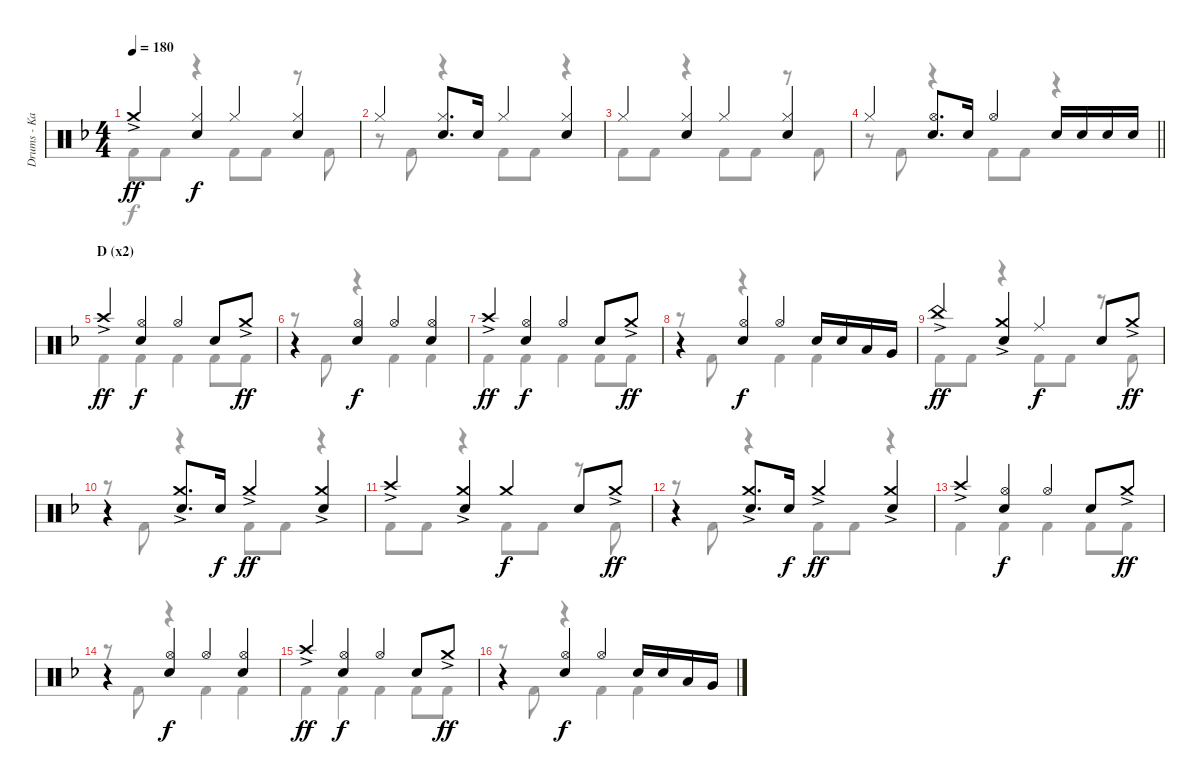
\track ("Drums - Kai" "Drums - Ka") {instrument percussion}
\staff {score}
\articulation defaults
\voice
\ts (4 4)
\tempo 180
\clef neutral
\ks f "Crash medium (hit)"{ac}.4{dy ff}
("Hi-Hat (closed)" "Snare (hit) 2").4{dy f} "Hi-Hat (closed)".4 ("Hi-Hat (closed)" "Snare (hit) 2").4 |
"Hi-Hat (closed)".4 ("Hi-Hat (closed)" "Snare (hit) 2").8{d} "Snare (hit) 2".16 "Hi-Hat (closed)".4 ("Hi-Hat (closed)" "Snare (hit) 2").4 |
"Hi-Hat (closed)".4 ("Hi-Hat (closed)" "Snare (hit) 2").4 "Hi-Hat (closed)".4 ("Hi-Hat (closed)" "Snare (hit) 2").4 |
\barLineRight lightlight "Hi-Hat (closed)".4
("Hi-Hat (open)" "Snare (hit) 2").8{d} "Snare (hit) 2".16 "Hi-Hat (open)".4 "Snare (hit) 2".16 "Snare (hit) 2".16 "Snare (hit) 2".16 "Snare (hit) 2".16 |
\section ("" "D (x2)")
"Crash high (hit)"{ac}.4{dy ff} ("Hi-Hat (open)" "Snare (hit) 2").4{dy f} "Hi-Hat (open)".4 "Snare (hit) 2".8 "Crash medium (hit)"{ac}.8{dy ff} |
r.4 ("Hi-Hat (open)" "Snare (hit) 2").4{dy f} "Hi-Hat (open)".4 ("Hi-Hat (open)" "Snare (hit) 2").4 |
"Crash high (hit)"{ac}.4{dy ff} ("Hi-Hat (open)" "Snare (hit) 2").4{dy f} "Hi-Hat (open)".4 "Snare (hit) 2".8 "Crash medium (hit)"{ac}.8{dy ff} |
r.4 ("Hi-Hat (open)" "Snare (hit) 2").4{dy f} "Hi-Hat (open)".4 "Snare (hit) 2".16 "Snare (hit) 2".16 "Low Tom (hit)".16 "Very Low Tom (hit)".16 |
"China (hit)"{ac}.4{dy ff} ("Crash medium (hit)"{ac} "Snare (hit) 2").4 "Ride (middle)".4{dy f} "Snare (hit) 2".8 "Crash medium (hit)"{ac}.8{dy ff} |
r.4 ("Crash medium (hit)"{ac} "Snare (hit) 2").8{d} "Snare (hit) 2".16{dy f} "Crash medium (hit)"{ac}.4{dy ff} ("Crash medium (hit)"{ac} "Snare (hit) 2").4 |
"Crash high (hit)"{ac}.4 ("Crash medium (hit)"{ac} "Snare (hit) 2").4 "Crash medium (hit)".4{dy f} "Snare (hit) 2".8 "Crash medium (hit)"{ac}.8{dy ff} |
r.4 ("Crash medium (hit)"{ac} "Snare (hit) 2").8{d} "Snare (hit) 2".16{dy f} "Crash medium (hit)"{ac}.4{dy ff} ("Crash medium (hit)"{ac} "Snare (hit) 2").4 |
"Crash high (hit)"{ac}.4 ("Hi-Hat (open)" "Snare (hit) 2").4{dy f} "Hi-Hat (open)".4 "Snare (hit) 2".8 "Crash medium (hit)"{ac}.8{dy ff} |
r.4 ("Hi-Hat (open)" "Snare (hit) 2").4{dy f} "Hi-Hat (open)".4 ("Hi-Hat (open)" "Snare (hit) 2").4 |
"Crash high (hit)"{ac}.4{dy ff} ("Hi-Hat (open)" "Snare (hit) 2").4{dy f} "Hi-Hat (open)".4 "Snare (hit) 2".8 "Crash medium (hit)"{ac}.8{dy ff} |
r.4 ("Hi-Hat (open)" "Snare (hit) 2").4{dy f} "Hi-Hat (open)".4 "Snare (hit) 2".16 "Snare (hit) 2".16 "Low Tom (hit)".16 "Very Low Tom (hit)".16
\voice
\clef neutral
\ottava regular
\simile none
\ks f "Kick (hit) 2".8{dy f} "Kick (hit) 2".8
r.4 "Kick (hit) 2".8 "Kick (hit) 2".8 r.8 "Kick (hit) 2".8 |
r.8 "Kick (hit) 2".8 r.4 "Kick (hit) 2".8 "Kick (hit) 2".8 r.4 |
"Kick (hit) 2".8 "Kick (hit) 2".8 r.4 "Kick (hit) 2".8 "Kick (hit) 2".8 r.8 "Kick (hit) 2".8 |
\barLineRight lightlight
r.8 "Kick (hit) 2".8 r.4 "Kick (hit) 2".8 "Kick (hit) 2".8 r.4 |
"Kick (hit) 2".4 "Kick (hit) 2".4 "Kick (hit) 2".4 "Kick (hit) 2".8 "Kick (hit) 2".8 |
r.8 "Kick (hit) 2".8 r.4 "Kick (hit) 2".4 "Kick (hit) 2".4 |
"Kick (hit) 2".4 "Kick (hit) 2".4 "Kick (hit) 2".4 "Kick (hit) 2".8 "Kick (hit) 2".8 |
r.8 "Kick (hit) 2".8 r.4 "Kick (hit) 2".4 "Kick (hit) 2".4 |
"Kick (hit) 2".8 "Kick (hit) 2".8 r.4 "Kick (hit) 2".8 "Kick (hit) 2".8 r.8 "Kick (hit) 2".8 |
r.8 "Kick (hit) 2".8 r.4 "Kick (hit) 2".8 "Kick (hit) 2".8 r.4 |
"Kick (hit) 2".8 "Kick (hit) 2".8 r.4 "Kick (hit) 2".8 "Kick (hit) 2".8 r.8 "Kick (hit) 2".8 |
r.8 "Kick (hit) 2".8 r.4 "Kick (hit) 2".8 "Kick (hit) 2".8 r.4 |
"Kick (hit) 2".4 "Kick (hit) 2".4 "Kick (hit) 2".4 "Kick (hit) 2".8 "Kick (hit) 2".8 |
r.8 "Kick (hit) 2".8 r.4 "Kick (hit) 2".4 "Kick (hit) 2".4 |
"Kick (hit) 2".4 "Kick (hit) 2".4 "Kick (hit) 2".4 "Kick (hit) 2".8 "Kick (hit) 2".8 |
r.8 "Kick (hit) 2".8 r.4 "Kick (hit) 2".4 "Kick (hit) 2".4
